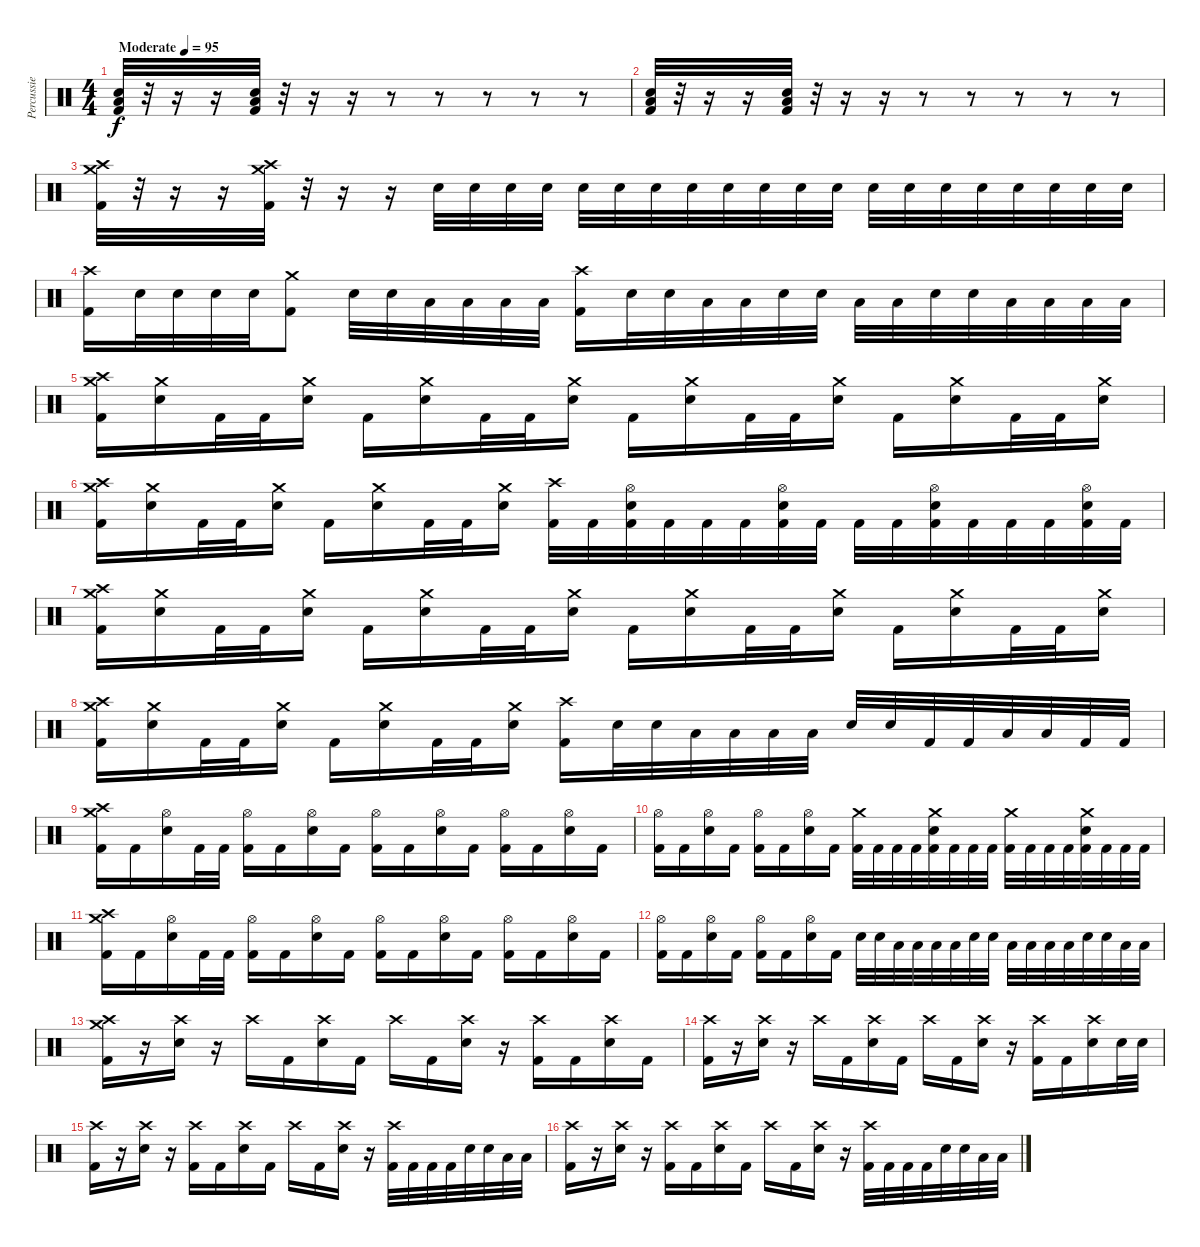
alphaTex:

\track ("Percussie" "Percussie") {instrument percussion}
\staff {score}
\articulation defaults
\ts (4 4)
\tempo (95 "Moderate")
\clef neutral
\ks c
("Low Floor Tom (hit)" "Electric Snare (hit)" "Kick (hit) 2").32{dy f} r.32 r.16 r.16 ("Low Floor Tom (hit)" "Electric Snare (hit)" "Kick (hit) 2").32 r.32 r.16 r.16 r.8 r.8 r.8 r.8 r.8 |
("Low Floor Tom (hit)" "Electric Snare (hit)" "Kick (hit) 2").32 r.32 r.16 r.16 ("Low Floor Tom (hit)" "Electric Snare (hit)" "Kick (hit) 2").32 r.32 r.16 r.16 r.8 r.8 r.8 r.8 r.8 |
("Crash medium (hit)" "Crash high (hit)" "Kick (hit) 2").32 r.32 r.16{volume 0} r.16 ("Crash medium (hit)" "Crash high (hit)" "Kick (hit) 2").32{volume 13} r.32 r.16{volume 0} r.16 "Electric Snare (hit)".32{volume 4} "Electric Snare (hit)".32 "Electric Snare (hit)".32 "Electric Snare (hit)".32 "Electric Snare (hit)".32{volume 7} "Electric Snare (hit)".32 "Electric Snare (hit)".32 "Electric Snare (hit)".32 "Electric Snare (hit)".32{volume 8} "Electric Snare (hit)".32 "Electric Snare (hit)".32 "Electric Snare (hit)".32 "Electric Snare (hit)".32{volume 11} "Electric Snare (hit)".32 "Electric Snare (hit)".32 "Electric Snare (hit)".32 "Electric Snare (hit)".32{volume 13} "Electric Snare (hit)".32 "Electric Snare (hit)".32 "Electric Snare (hit)".32 |
("Crash high (hit)" "Kick (hit) 2").16 "Electric Snare (hit)".32 "Electric Snare (hit)".32 "Electric Snare (hit)".32 "Electric Snare (hit)".32 ("Crash medium (hit)" "Kick (hit) 2").8 "Electric Snare (hit)".32 "Electric Snare (hit)".32 "Low Tom (hit)".32 "Low Tom (hit)".32 "Low Floor Tom (hit)".32 "Low Floor Tom (hit)".32 ("Crash high (hit)" "Kick (hit) 2").16 "Electric Snare (hit)".32 "Electric Snare (hit)".32 "Low Tom (hit)".32 "Low Tom (hit)".32 "Electric Snare (hit)".32 "Electric Snare (hit)".32 "Low Tom (hit)".32 "Low Tom (hit)".32 "Electric Snare (hit)".32 "Electric Snare (hit)".32 "Low Tom (hit)".32 "Low Tom (hit)".32 "Low Floor Tom (hit)".32 "Low Floor Tom (hit)".32 |
("Crash medium (hit)" "Crash high (hit)" "Kick (hit) 2").16 ("Crash medium (hit)" "Electric Snare (hit)").16 "Kick (hit) 2".32 "Kick (hit) 2".32 ("Crash medium (hit)" "Electric Snare (hit)").16 "Kick (hit) 2".16 ("Crash medium (hit)" "Electric Snare (hit)").16 "Kick (hit) 2".32 "Kick (hit) 2".32 ("Crash medium (hit)" "Electric Snare (hit)").16 "Kick (hit) 2".16 ("Crash medium (hit)" "Electric Snare (hit)").16 "Kick (hit) 2".32 "Kick (hit) 2".32 ("Crash medium (hit)" "Electric Snare (hit)").16 "Kick (hit) 2".16 ("Crash medium (hit)" "Electric Snare (hit)").16 "Kick (hit) 2".32 "Kick (hit) 2".32 ("Crash medium (hit)" "Electric Snare (hit)").16 |
("Crash medium (hit)" "Crash high (hit)" "Kick (hit) 2").16 ("Crash medium (hit)" "Electric Snare (hit)").16 "Kick (hit) 2".32 "Kick (hit) 2".32 ("Crash medium (hit)" "Electric Snare (hit)").16 "Kick (hit) 2".16 ("Crash medium (hit)" "Electric Snare (hit)").16 "Kick (hit) 2".32 "Kick (hit) 2".32 ("Crash medium (hit)" "Electric Snare (hit)").16 ("Crash high (hit)" "Kick (hit) 2").32 "Kick (hit) 2".32 ("Hi-Hat (open)" "Electric Snare (hit)" "Kick (hit) 2").32 "Kick (hit) 2".32 "Kick (hit) 2".32 "Kick (hit) 2".32 ("Hi-Hat (open)" "Electric Snare (hit)" "Kick (hit) 2").32 "Kick (hit) 2".32 "Kick (hit) 2".32 "Kick (hit) 2".32 ("Hi-Hat (open)" "Electric Snare (hit)" "Kick (hit) 2").32 "Kick (hit) 2".32 "Kick (hit) 2".32 "Kick (hit) 2".32 ("Hi-Hat (open)" "Electric Snare (hit)" "Kick (hit) 2").32 "Kick (hit) 2".32 |
("Crash medium (hit)" "Crash high (hit)" "Kick (hit) 2").16 ("Crash medium (hit)" "Electric Snare (hit)").16 "Kick (hit) 2".32 "Kick (hit) 2".32 ("Crash medium (hit)" "Electric Snare (hit)").16 "Kick (hit) 2".16 ("Crash medium (hit)" "Electric Snare (hit)").16 "Kick (hit) 2".32 "Kick (hit) 2".32 ("Crash medium (hit)" "Electric Snare (hit)").16 "Kick (hit) 2".16 ("Crash medium (hit)" "Electric Snare (hit)").16 "Kick (hit) 2".32 "Kick (hit) 2".32 ("Crash medium (hit)" "Electric Snare (hit)").16 "Kick (hit) 2".16 ("Crash medium (hit)" "Electric Snare (hit)").16 "Kick (hit) 2".32 "Kick (hit) 2".32 ("Crash medium (hit)" "Electric Snare (hit)").16 |
("Crash medium (hit)" "Crash high (hit)" "Kick (hit) 2").16 ("Crash medium (hit)" "Electric Snare (hit)").16 "Kick (hit) 2".32 "Kick (hit) 2".32 ("Crash medium (hit)" "Electric Snare (hit)").16 "Kick (hit) 2".16 ("Crash medium (hit)" "Electric Snare (hit)").16 "Kick (hit) 2".32 "Kick (hit) 2".32 ("Crash medium (hit)" "Electric Snare (hit)").16 ("Crash high (hit)" "Kick (hit) 2").16 "Electric Snare (hit)".32 "Electric Snare (hit)".32 "Low Tom (hit)".32 "Low Tom (hit)".32 "Low Floor Tom (hit)".32 "Low Floor Tom (hit)".32 "Electric Snare (hit)".32 "Electric Snare (hit)".32 "Kick (hit) 2".32 "Kick (hit) 2".32 "Low Tom (hit)".32 "Low Tom (hit)".32 "Kick (hit) 2".32 "Kick (hit) 2".32 |
("Crash medium (hit)" "Crash high (hit)" "Kick (hit) 2").16 "Kick (hit) 2".16 ("Hi-Hat (open)" "Electric Snare (hit)").16 "Kick (hit) 2".32 "Kick (hit) 2".32 ("Hi-Hat (open)" "Kick (hit) 2").16 "Kick (hit) 2".16 ("Hi-Hat (open)" "Electric Snare (hit)").16 "Kick (hit) 2".16 ("Hi-Hat (open)" "Kick (hit) 2").16 "Kick (hit) 2".16 ("Hi-Hat (open)" "Electric Snare (hit)").16 "Kick (hit) 2".16 ("Hi-Hat (open)" "Kick (hit) 2").16 "Kick (hit) 2".16 ("Hi-Hat (open)" "Electric Snare (hit)").16 "Kick (hit) 2".16 |
("Hi-Hat (open)" "Kick (hit) 2").16 "Kick (hit) 2".16 ("Hi-Hat (open)" "Electric Snare (hit)").16 "Kick (hit) 2".16 ("Hi-Hat (open)" "Kick (hit) 2").16 "Kick (hit) 2".16 ("Hi-Hat (open)" "Electric Snare (hit)").16 "Kick (hit) 2".16 ("Crash medium (hit)" "Kick (hit) 2").32 "Kick (hit) 2".32 "Kick (hit) 2".32 "Kick (hit) 2".32 ("Crash medium (hit)" "Electric Snare (hit)" "Kick (hit) 2").32 "Kick (hit) 2".32 "Kick (hit) 2".32 "Kick (hit) 2".32 ("Crash medium (hit)" "Kick (hit) 2").32 "Kick (hit) 2".32 "Kick (hit) 2".32 "Kick (hit) 2".32 ("Crash medium (hit)" "Electric Snare (hit)" "Kick (hit) 2").32 "Kick (hit) 2".32 "Kick (hit) 2".32 "Kick (hit) 2".32 |
("Crash medium (hit)" "Crash high (hit)" "Kick (hit) 2").16 "Kick (hit) 2".16 ("Hi-Hat (open)" "Electric Snare (hit)").16 "Kick (hit) 2".32 "Kick (hit) 2".32 ("Hi-Hat (open)" "Kick (hit) 2").16 "Kick (hit) 2".16 ("Hi-Hat (open)" "Electric Snare (hit)").16 "Kick (hit) 2".16 ("Hi-Hat (open)" "Kick (hit) 2").16 "Kick (hit) 2".16 ("Hi-Hat (open)" "Electric Snare (hit)").16 "Kick (hit) 2".16 ("Hi-Hat (open)" "Kick (hit) 2").16 "Kick (hit) 2".16 ("Hi-Hat (open)" "Electric Snare (hit)").16 "Kick (hit) 2".16 |
("Hi-Hat (open)" "Kick (hit) 2").16 "Kick (hit) 2".16 ("Hi-Hat (open)" "Electric Snare (hit)").16 "Kick (hit) 2".16 ("Hi-Hat (open)" "Kick (hit) 2").16 "Kick (hit) 2".16 ("Hi-Hat (open)" "Electric Snare (hit)").16 "Kick (hit) 2".16 "Electric Snare (hit)".32 "Electric Snare (hit)".32 "Low Tom (hit)".32 "Low Tom (hit)".32 "Low Floor Tom (hit)".32 "Low Floor Tom (hit)".32 "Electric Snare (hit)".32 "Electric Snare (hit)".32 "Low Tom (hit)".32 "Low Tom (hit)".32 "Low Floor Tom (hit)".32 "Low Floor Tom (hit)".32 "Electric Snare (hit)".32 "Electric Snare (hit)".32 "Low Tom (hit)".32 "Low Tom (hit)".32 |
("Crash medium (hit)" "Crash high (hit)" "Kick (hit) 2").16 r.16 ("Crash high (hit)" "Electric Snare (hit)").16 r.16 "Crash high (hit)".16 "Kick (hit) 2".16 ("Crash high (hit)" "Electric Snare (hit)").16 "Kick (hit) 2".16 "Crash high (hit)".16 "Kick (hit) 2".16 ("Crash high (hit)" "Electric Snare (hit)").16 r.16 ("Crash high (hit)" "Kick (hit) 2").16 "Kick (hit) 2".16 ("Crash high (hit)" "Electric Snare (hit)").16 "Kick (hit) 2".16 |
("Crash high (hit)" "Kick (hit) 2").16 r.16 ("Crash high (hit)" "Electric Snare (hit)").16 r.16 "Crash high (hit)".16 "Kick (hit) 2".16 ("Crash high (hit)" "Electric Snare (hit)").16 "Kick (hit) 2".16 "Crash high (hit)".16 "Kick (hit) 2".16 ("Crash high (hit)" "Electric Snare (hit)").16 r.16 ("Crash high (hit)" "Kick (hit) 2").16 "Kick (hit) 2".16 ("Crash high (hit)" "Electric Snare (hit)").16 "Electric Snare (hit)".32 "Electric Snare (hit)".32 |
("Crash high (hit)" "Kick (hit) 2").16 r.16 ("Crash high (hit)" "Electric Snare (hit)").16 r.16 ("Crash high (hit)" "Kick (hit) 2").16 "Kick (hit) 2".16 ("Crash high (hit)" "Electric Snare (hit)").16 "Kick (hit) 2".16 "Crash high (hit)".16 "Kick (hit) 2".16 ("Crash high (hit)" "Electric Snare (hit)").16 r.16 ("Crash high (hit)" "Kick (hit) 2").32 "Kick (hit) 2".32 "Kick (hit) 2".32 "Kick (hit) 2".32 "Electric Snare (hit)".32 "Electric Snare (hit)".32 "Low Tom (hit)".32 "Low Tom (hit)".32 |
("Crash high (hit)" "Kick (hit) 2").16 r.16 ("Crash high (hit)" "Electric Snare (hit)").16 r.16 ("Crash high (hit)" "Kick (hit) 2").16 "Kick (hit) 2".16 ("Crash high (hit)" "Electric Snare (hit)").16 "Kick (hit) 2".16 "Crash high (hit)".16 "Kick (hit) 2".16 ("Crash high (hit)" "Electric Snare (hit)").16 r.16 ("Crash high (hit)" "Kick (hit) 2").32 "Kick (hit) 2".32 "Kick (hit) 2".32 "Kick (hit) 2".32 "Electric Snare (hit)".32 "Electric Snare (hit)".32 "Low Floor Tom (hit)".32 "Low Floor Tom (hit)".32
